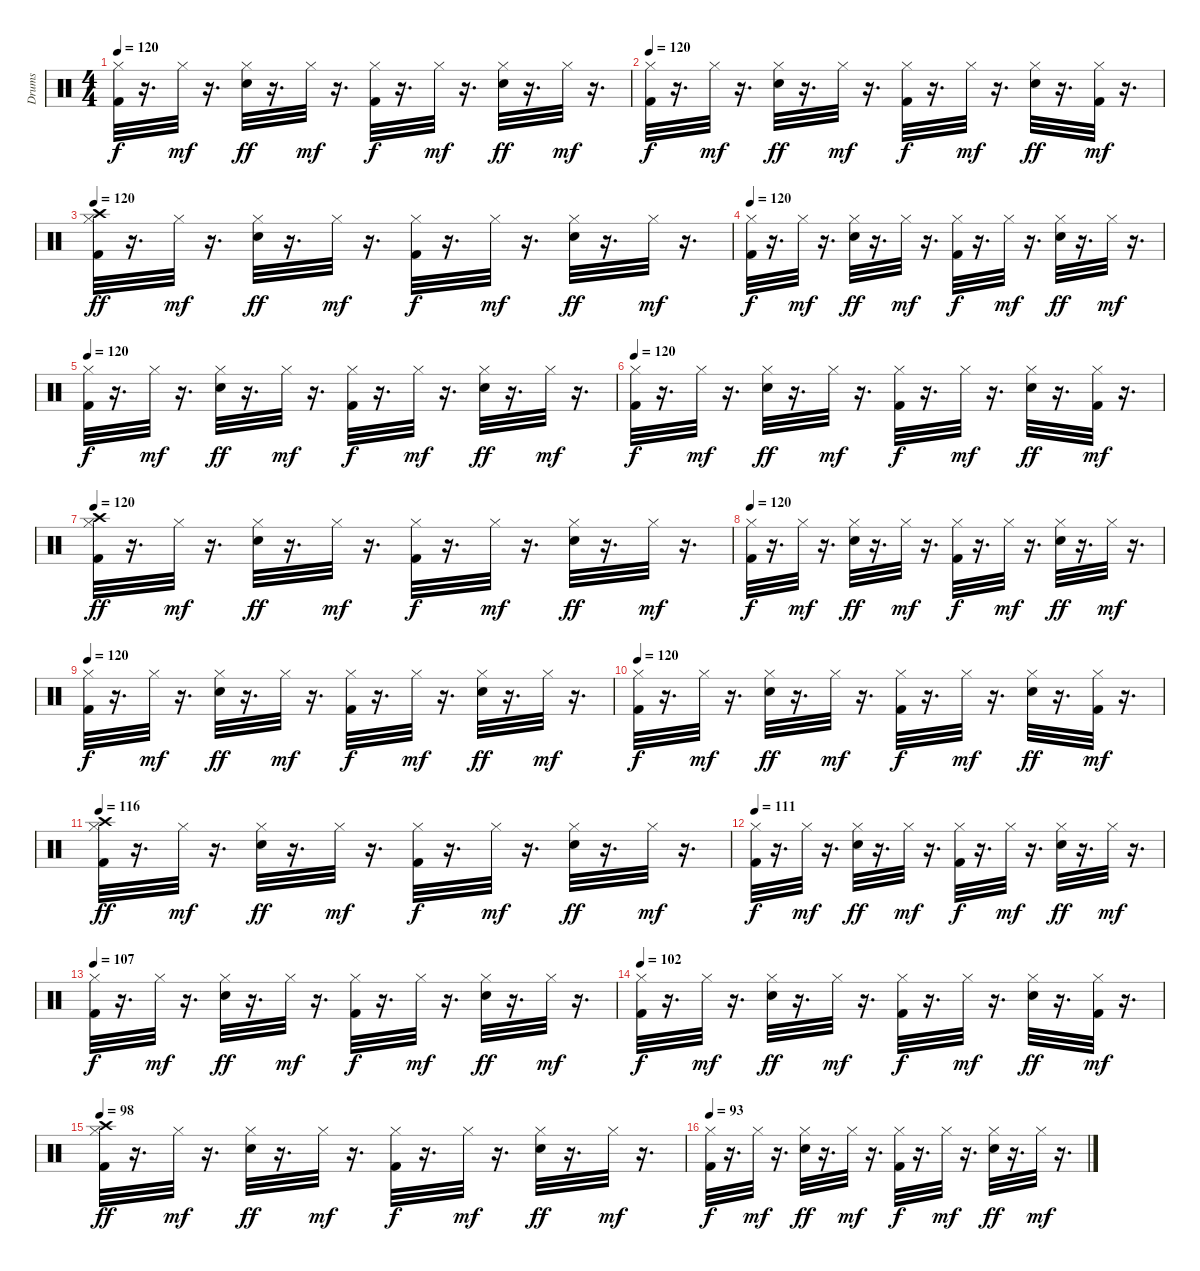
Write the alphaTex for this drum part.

\track ("Drums" "Drums") {instrument percussion}
\staff {score}
\articulation defaults
\ts (4 4)
\tempo 120
\clef neutral
\ks c
("Kick (hit) 2" "Hi-Hat (closed)").32{dy f} r.16{d} "Hi-Hat (closed)".32{dy mf} r.16{d} ("Snare (hit) 2" "Hi-Hat (closed)").32{dy ff} r.16{d} "Hi-Hat (closed)".32{dy mf} r.16{d} ("Kick (hit) 2" "Hi-Hat (closed)").32{dy f} r.16{d} "Hi-Hat (closed)".32{dy mf} r.16{d} ("Snare (hit) 2" "Hi-Hat (closed)").32{dy ff} r.16{d} "Hi-Hat (closed)".32{dy mf} r.16{d} |
\tempo 120
("Kick (hit) 2" "Hi-Hat (closed)").32{dy f} r.16{d} "Hi-Hat (closed)".32{dy mf} r.16{d} ("Snare (hit) 2" "Hi-Hat (closed)").32{dy ff} r.16{d} "Hi-Hat (closed)".32{dy mf} r.16{d} ("Kick (hit) 2" "Hi-Hat (closed)").32{dy f} r.16{d} "Hi-Hat (closed)".32{dy mf} r.16{d} ("Snare (hit) 2" "Hi-Hat (closed)").32{dy ff} r.16{d} ("Kick (hit) 2" "Hi-Hat (closed)").32{dy mf} r.16{d} |
\tempo 120
("Kick (hit) 2" "Hi-Hat (closed)" "Crash high (hit)").32{dy ff} r.16{d} "Hi-Hat (closed)".32{dy mf} r.16{d} ("Snare (hit) 2" "Hi-Hat (closed)").32{dy ff} r.16{d} "Hi-Hat (closed)".32{dy mf} r.16{d} ("Kick (hit) 2" "Hi-Hat (closed)").32{dy f} r.16{d} "Hi-Hat (closed)".32{dy mf} r.16{d} ("Snare (hit) 2" "Hi-Hat (closed)").32{dy ff} r.16{d} "Hi-Hat (closed)".32{dy mf} r.16{d} |
\tempo 120
("Kick (hit) 2" "Hi-Hat (closed)").32{dy f} r.16{d} "Hi-Hat (closed)".32{dy mf} r.16{d} ("Snare (hit) 2" "Hi-Hat (closed)").32{dy ff} r.16{d} "Hi-Hat (closed)".32{dy mf} r.16{d} ("Kick (hit) 2" "Hi-Hat (closed)").32{dy f} r.16{d} "Hi-Hat (closed)".32{dy mf} r.16{d} ("Snare (hit) 2" "Hi-Hat (closed)").32{dy ff} r.16{d} "Hi-Hat (closed)".32{dy mf} r.16{d} |
\tempo 120
("Kick (hit) 2" "Hi-Hat (closed)").32{dy f} r.16{d} "Hi-Hat (closed)".32{dy mf} r.16{d} ("Snare (hit) 2" "Hi-Hat (closed)").32{dy ff} r.16{d} "Hi-Hat (closed)".32{dy mf} r.16{d} ("Kick (hit) 2" "Hi-Hat (closed)").32{dy f} r.16{d} "Hi-Hat (closed)".32{dy mf} r.16{d} ("Snare (hit) 2" "Hi-Hat (closed)").32{dy ff} r.16{d} "Hi-Hat (closed)".32{dy mf} r.16{d} |
\tempo 120
("Kick (hit) 2" "Hi-Hat (closed)").32{dy f} r.16{d} "Hi-Hat (closed)".32{dy mf} r.16{d} ("Snare (hit) 2" "Hi-Hat (closed)").32{dy ff} r.16{d} "Hi-Hat (closed)".32{dy mf} r.16{d} ("Kick (hit) 2" "Hi-Hat (closed)").32{dy f} r.16{d} "Hi-Hat (closed)".32{dy mf} r.16{d} ("Snare (hit) 2" "Hi-Hat (closed)").32{dy ff} r.16{d} ("Kick (hit) 2" "Hi-Hat (closed)").32{dy mf} r.16{d} |
\tempo 120
("Kick (hit) 2" "Hi-Hat (closed)" "Crash high (hit)").32{dy ff} r.16{d} "Hi-Hat (closed)".32{dy mf} r.16{d} ("Snare (hit) 2" "Hi-Hat (closed)").32{dy ff} r.16{d} "Hi-Hat (closed)".32{dy mf} r.16{d} ("Kick (hit) 2" "Hi-Hat (closed)").32{dy f} r.16{d} "Hi-Hat (closed)".32{dy mf} r.16{d} ("Snare (hit) 2" "Hi-Hat (closed)").32{dy ff} r.16{d} "Hi-Hat (closed)".32{dy mf} r.16{d} |
\tempo 120
("Kick (hit) 2" "Hi-Hat (closed)").32{dy f} r.16{d} "Hi-Hat (closed)".32{dy mf} r.16{d} ("Snare (hit) 2" "Hi-Hat (closed)").32{dy ff} r.16{d} "Hi-Hat (closed)".32{dy mf} r.16{d} ("Kick (hit) 2" "Hi-Hat (closed)").32{dy f} r.16{d} "Hi-Hat (closed)".32{dy mf} r.16{d} ("Snare (hit) 2" "Hi-Hat (closed)").32{dy ff} r.16{d} "Hi-Hat (closed)".32{dy mf} r.16{d} |
\tempo 120
("Kick (hit) 2" "Hi-Hat (closed)").32{dy f} r.16{d} "Hi-Hat (closed)".32{dy mf} r.16{d} ("Snare (hit) 2" "Hi-Hat (closed)").32{dy ff} r.16{d} "Hi-Hat (closed)".32{dy mf} r.16{d} ("Kick (hit) 2" "Hi-Hat (closed)").32{dy f} r.16{d} "Hi-Hat (closed)".32{dy mf} r.16{d} ("Snare (hit) 2" "Hi-Hat (closed)").32{dy ff} r.16{d} "Hi-Hat (closed)".32{dy mf} r.16{d} |
\tempo 120
("Kick (hit) 2" "Hi-Hat (closed)").32{dy f} r.16{d} "Hi-Hat (closed)".32{dy mf volume 12} r.16{d} ("Snare (hit) 2" "Hi-Hat (closed)").32{dy ff volume 12} r.16{d} "Hi-Hat (closed)".32{dy mf volume 12} r.16{d} ("Kick (hit) 2" "Hi-Hat (closed)").32{dy f volume 11} r.16{d} "Hi-Hat (closed)".32{dy mf volume 11} r.16{d} ("Snare (hit) 2" "Hi-Hat (closed)").32{dy ff volume 11} r.16{d} ("Kick (hit) 2" "Hi-Hat (closed)").32{dy mf volume 11} r.16{d} |
\tempo 116
("Kick (hit) 2" "Hi-Hat (closed)" "Crash high (hit)").32{dy ff volume 11} r.16{d} "Hi-Hat (closed)".32{dy mf volume 10} r.16{d} ("Snare (hit) 2" "Hi-Hat (closed)").32{dy ff volume 10} r.16{d} "Hi-Hat (closed)".32{dy mf volume 10} r.16{d} ("Kick (hit) 2" "Hi-Hat (closed)").32{dy f volume 10} r.16{d} "Hi-Hat (closed)".32{dy mf volume 10} r.16{d} ("Snare (hit) 2" "Hi-Hat (closed)").32{dy ff volume 10} r.16{d} "Hi-Hat (closed)".32{dy mf volume 10} r.16{d} |
\tempo 111
("Kick (hit) 2" "Hi-Hat (closed)").32{dy f volume 9} r.16{d} "Hi-Hat (closed)".32{dy mf volume 9} r.16{d} ("Snare (hit) 2" "Hi-Hat (closed)").32{dy ff volume 9} r.16{d} "Hi-Hat (closed)".32{dy mf volume 9} r.16{d} ("Kick (hit) 2" "Hi-Hat (closed)").32{dy f volume 9} r.16{d} "Hi-Hat (closed)".32{dy mf volume 8} r.16{d} ("Snare (hit) 2" "Hi-Hat (closed)").32{dy ff volume 8} r.16{d} "Hi-Hat (closed)".32{dy mf volume 8} r.16{d} |
\tempo 107
("Kick (hit) 2" "Hi-Hat (closed)").32{dy f volume 8} r.16{d} "Hi-Hat (closed)".32{dy mf volume 8} r.16{d} ("Snare (hit) 2" "Hi-Hat (closed)").32{dy ff volume 8} r.16{d} "Hi-Hat (closed)".32{dy mf volume 8} r.16{d} ("Kick (hit) 2" "Hi-Hat (closed)").32{dy f volume 7} r.16{d} "Hi-Hat (closed)".32{dy mf volume 7} r.16{d} ("Snare (hit) 2" "Hi-Hat (closed)").32{dy ff volume 7} r.16{d} "Hi-Hat (closed)".32{dy mf volume 7} r.16{d} |
\tempo 102
("Kick (hit) 2" "Hi-Hat (closed)").32{dy f volume 7} r.16{d} "Hi-Hat (closed)".32{dy mf volume 6} r.16{d} ("Snare (hit) 2" "Hi-Hat (closed)").32{dy ff volume 6} r.16{d} "Hi-Hat (closed)".32{dy mf volume 6} r.16{d} ("Kick (hit) 2" "Hi-Hat (closed)").32{dy f volume 6} r.16{d} "Hi-Hat (closed)".32{dy mf volume 6} r.16{d} ("Snare (hit) 2" "Hi-Hat (closed)").32{dy ff volume 6} r.16{d} ("Kick (hit) 2" "Hi-Hat (closed)").32{dy mf volume 6} r.16{d} |
\tempo 98
("Kick (hit) 2" "Hi-Hat (closed)" "Crash high (hit)").32{dy ff volume 5} r.16{d} "Hi-Hat (closed)".32{dy mf volume 5} r.16{d} ("Snare (hit) 2" "Hi-Hat (closed)").32{dy ff volume 5} r.16{d} "Hi-Hat (closed)".32{dy mf volume 5} r.16{d} ("Kick (hit) 2" "Hi-Hat (closed)").32{dy f volume 5} r.16{d} "Hi-Hat (closed)".32{dy mf volume 4} r.16{d} ("Snare (hit) 2" "Hi-Hat (closed)").32{dy ff volume 4} r.16{d} "Hi-Hat (closed)".32{dy mf volume 4} r.16{d} |
\tempo 93
("Kick (hit) 2" "Hi-Hat (closed)").32{dy f volume 4} r.16{d} "Hi-Hat (closed)".32{dy mf volume 4} r.16{d} ("Snare (hit) 2" "Hi-Hat (closed)").32{dy ff volume 4} r.16{d} "Hi-Hat (closed)".32{dy mf volume 4} r.16{d} ("Kick (hit) 2" "Hi-Hat (closed)").32{dy f volume 3} r.16{d} "Hi-Hat (closed)".32{dy mf volume 3} r.16{d} ("Snare (hit) 2" "Hi-Hat (closed)").32{dy ff volume 3} r.16{d} "Hi-Hat (closed)".32{dy mf volume 3} r.16{d}
